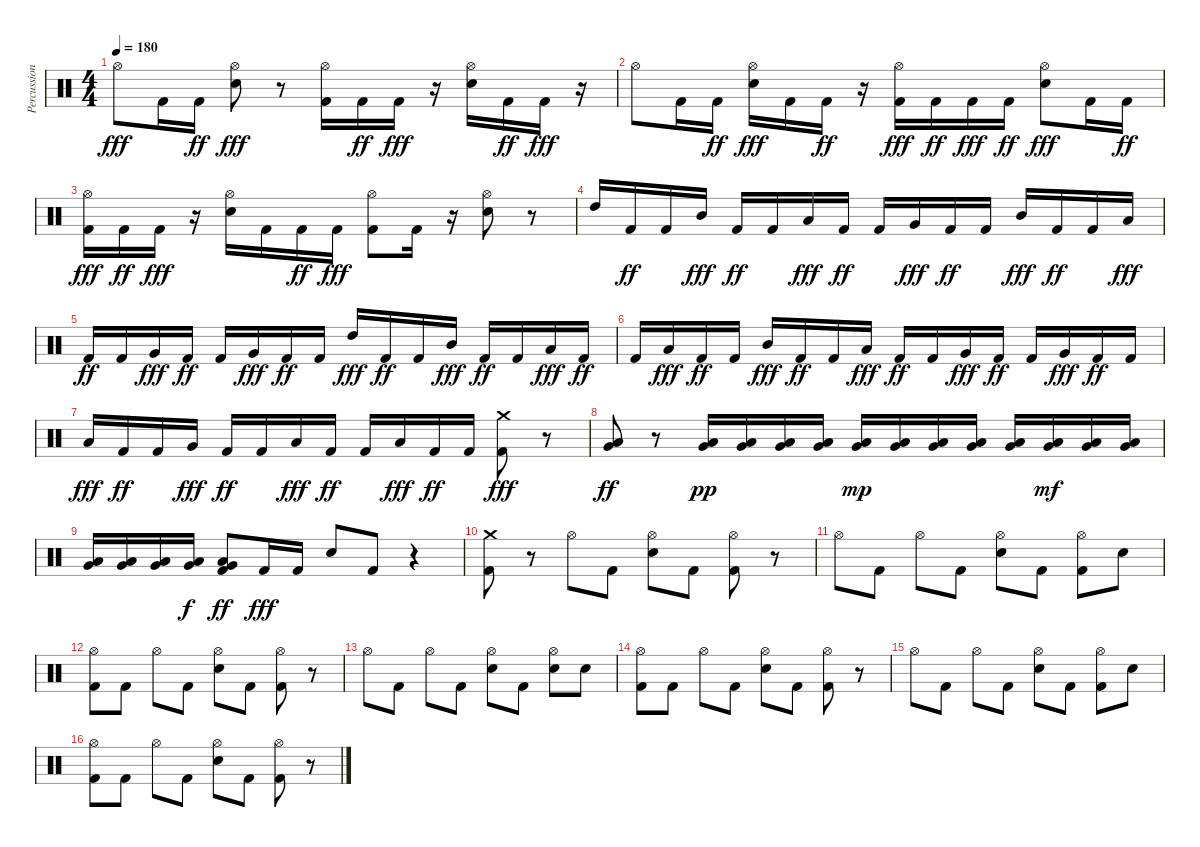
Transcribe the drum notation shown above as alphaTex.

\track ("Percussion" "Percussion") {instrument percussion}
\staff {score}
\articulation defaults
\ts (4 4)
\tempo 180
\clef neutral
\ks c "Hi-Hat (open)".8{dy fff} "Kick (hit) 2".16 "Kick (hit) 2".16{dy ff}
("Snare (hit) 2" "Hi-Hat (open)").8{dy fff} r.8 ("Kick (hit) 2" "Hi-Hat (open)").16 "Kick (hit) 2".16{dy ff} "Kick (hit) 2".16{dy fff} r.16 ("Snare (hit) 2" "Hi-Hat (open)").16 "Kick (hit) 2".16{dy ff} "Kick (hit) 2".16{dy fff} r.16 |
"Hi-Hat (open)".8 "Kick (hit) 2".16 "Kick (hit) 2".16{dy ff} ("Snare (hit) 2" "Hi-Hat (open)").16{dy fff} "Kick (hit) 2".16 "Kick (hit) 2".16{dy ff} r.16 ("Kick (hit) 2" "Hi-Hat (open)").16{dy fff} "Kick (hit) 2".16{dy ff} "Kick (hit) 2".16{dy fff} "Kick (hit) 2".16{dy ff} ("Snare (hit) 2" "Hi-Hat (open)").8{dy fff} "Kick (hit) 2".16 "Kick (hit) 2".16{dy ff} |
("Kick (hit) 2" "Hi-Hat (open)").16{dy fff} "Kick (hit) 2".16{dy ff} "Kick (hit) 2".16{dy fff} r.16 ("Snare (hit) 2" "Hi-Hat (open)").16 "Kick (hit) 2".16 "Kick (hit) 2".16{dy ff} "Kick (hit) 2".16{dy fff} ("Kick (hit) 2" "Hi-Hat (open)").8 "Kick (hit) 2".16 r.16 ("Snare (hit) 2" "Hi-Hat (open)").8 r.8 |
"High Tom (hit)".16 "Kick (hit) 2".16{dy ff} "Kick (hit) 2".16 "Mid Tom (hit)".16{dy fff} "Kick (hit) 2".16{dy ff} "Kick (hit) 2".16 "Low Tom (hit)".16{dy fff} "Kick (hit) 2".16{dy ff} "Kick (hit) 2".16 "Very Low Tom (hit)".16{dy fff} "Kick (hit) 2".16{dy ff} "Kick (hit) 2".16 "Mid Tom (hit)".16{dy fff} "Kick (hit) 2".16{dy ff} "Kick (hit) 2".16 "Low Tom (hit)".16{dy fff} |
"Kick (hit) 2".16{dy ff} "Kick (hit) 2".16 "Very Low Tom (hit)".16{dy fff} "Kick (hit) 2".16{dy ff} "Kick (hit) 2".16 "Very Low Tom (hit)".16{dy fff} "Kick (hit) 2".16{dy ff} "Kick (hit) 2".16 "High Tom (hit)".16{dy fff} "Kick (hit) 2".16{dy ff} "Kick (hit) 2".16 "Mid Tom (hit)".16{dy fff} "Kick (hit) 2".16{dy ff} "Kick (hit) 2".16 "Low Tom (hit)".16{dy fff} "Kick (hit) 2".16{dy ff} |
"Kick (hit) 2".16 "Low Tom (hit)".16{dy fff} "Kick (hit) 2".16{dy ff} "Kick (hit) 2".16 "Mid Tom (hit)".16{dy fff} "Kick (hit) 2".16{dy ff} "Kick (hit) 2".16 "Low Tom (hit)".16{dy fff} "Kick (hit) 2".16{dy ff} "Kick (hit) 2".16 "Very Low Tom (hit)".16{dy fff} "Kick (hit) 2".16{dy ff} "Kick (hit) 2".16 "Very Low Tom (hit)".16{dy fff} "Kick (hit) 2".16{dy ff} "Kick (hit) 2".16 |
"Low Tom (hit)".16{dy fff} "Kick (hit) 2".16{dy ff} "Kick (hit) 2".16 "Very Low Tom (hit)".16{dy fff} "Kick (hit) 2".16{dy ff} "Kick (hit) 2".16 "Low Floor Tom (hit)".16{dy fff} "Kick (hit) 2".16{dy ff} "Kick (hit) 2".16 "Low Floor Tom (hit)".16{dy fff} "Kick (hit) 2".16{dy ff} "Kick (hit) 2".16 ("Kick (hit) 2" "Crash medium (hit)").8{dy fff} r.8 |
("Low Floor Tom (hit)" "Very Low Tom (hit)").8{dy ff} r.8 ("Low Floor Tom (hit)" "Very Low Tom (hit)").16{dy pp} ("Low Floor Tom (hit)" "Very Low Tom (hit)").16 ("Low Floor Tom (hit)" "Very Low Tom (hit)").16 ("Low Floor Tom (hit)" "Very Low Tom (hit)").16 ("Low Floor Tom (hit)" "Very Low Tom (hit)").16{dy mp} ("Low Floor Tom (hit)" "Very Low Tom (hit)").16 ("Low Floor Tom (hit)" "Very Low Tom (hit)").16 ("Low Floor Tom (hit)" "Very Low Tom (hit)").16 ("Low Floor Tom (hit)" "Very Low Tom (hit)").16 ("Low Floor Tom (hit)" "Very Low Tom (hit)").16{dy mf} ("Low Floor Tom (hit)" "Very Low Tom (hit)").16 ("Low Floor Tom (hit)" "Very Low Tom (hit)").16 |
("Low Floor Tom (hit)" "Very Low Tom (hit)").16 ("Low Floor Tom (hit)" "Very Low Tom (hit)").16 ("Low Floor Tom (hit)" "Very Low Tom (hit)").16 ("Low Floor Tom (hit)" "Very Low Tom (hit)").16{dy f} ("Kick (hit) 2" "Low Floor Tom (hit)" "Very Low Tom (hit)").8{dy ff} "Kick (hit) 2".16{dy fff} "Kick (hit) 2".16 "Snare (hit) 2".8 "Kick (hit) 2".8 r.4 |
("Kick (hit) 2" "Crash medium (hit)").8 r.8 "Hi-Hat (open)".8 "Kick (hit) 2".8 ("Hi-Hat (open)" "Snare (hit) 2").8 "Kick (hit) 2".8 ("Hi-Hat (open)" "Kick (hit) 2").8 r.8 |
"Hi-Hat (open)".8 "Kick (hit) 2".8 "Hi-Hat (open)".8 "Kick (hit) 2".8 ("Hi-Hat (open)" "Snare (hit) 2").8 "Kick (hit) 2".8 ("Hi-Hat (open)" "Kick (hit) 2").8 "Snare (hit) 2".8 |
("Hi-Hat (open)" "Kick (hit) 2").8 "Kick (hit) 2".8 "Hi-Hat (open)".8 "Kick (hit) 2".8 ("Hi-Hat (open)" "Snare (hit) 2").8 "Kick (hit) 2".8 ("Hi-Hat (open)" "Kick (hit) 2").8 r.8 |
"Hi-Hat (open)".8 "Kick (hit) 2".8 "Hi-Hat (open)".8 "Kick (hit) 2".8 ("Hi-Hat (open)" "Snare (hit) 2").8 "Kick (hit) 2".8 ("Hi-Hat (open)" "Snare (hit) 2").8 "Snare (hit) 2".8 |
("Hi-Hat (open)" "Kick (hit) 2").8 "Kick (hit) 2".8 "Hi-Hat (open)".8 "Kick (hit) 2".8 ("Hi-Hat (open)" "Snare (hit) 2").8 "Kick (hit) 2".8 ("Hi-Hat (open)" "Kick (hit) 2").8 r.8 |
"Hi-Hat (open)".8 "Kick (hit) 2".8 "Hi-Hat (open)".8 "Kick (hit) 2".8 ("Hi-Hat (open)" "Snare (hit) 2").8 "Kick (hit) 2".8 ("Hi-Hat (open)" "Kick (hit) 2").8 "Snare (hit) 2".8 |
("Hi-Hat (open)" "Kick (hit) 2").8 "Kick (hit) 2".8 "Hi-Hat (open)".8 "Kick (hit) 2".8 ("Hi-Hat (open)" "Snare (hit) 2").8 "Kick (hit) 2".8 ("Hi-Hat (open)" "Kick (hit) 2").8 r.8
